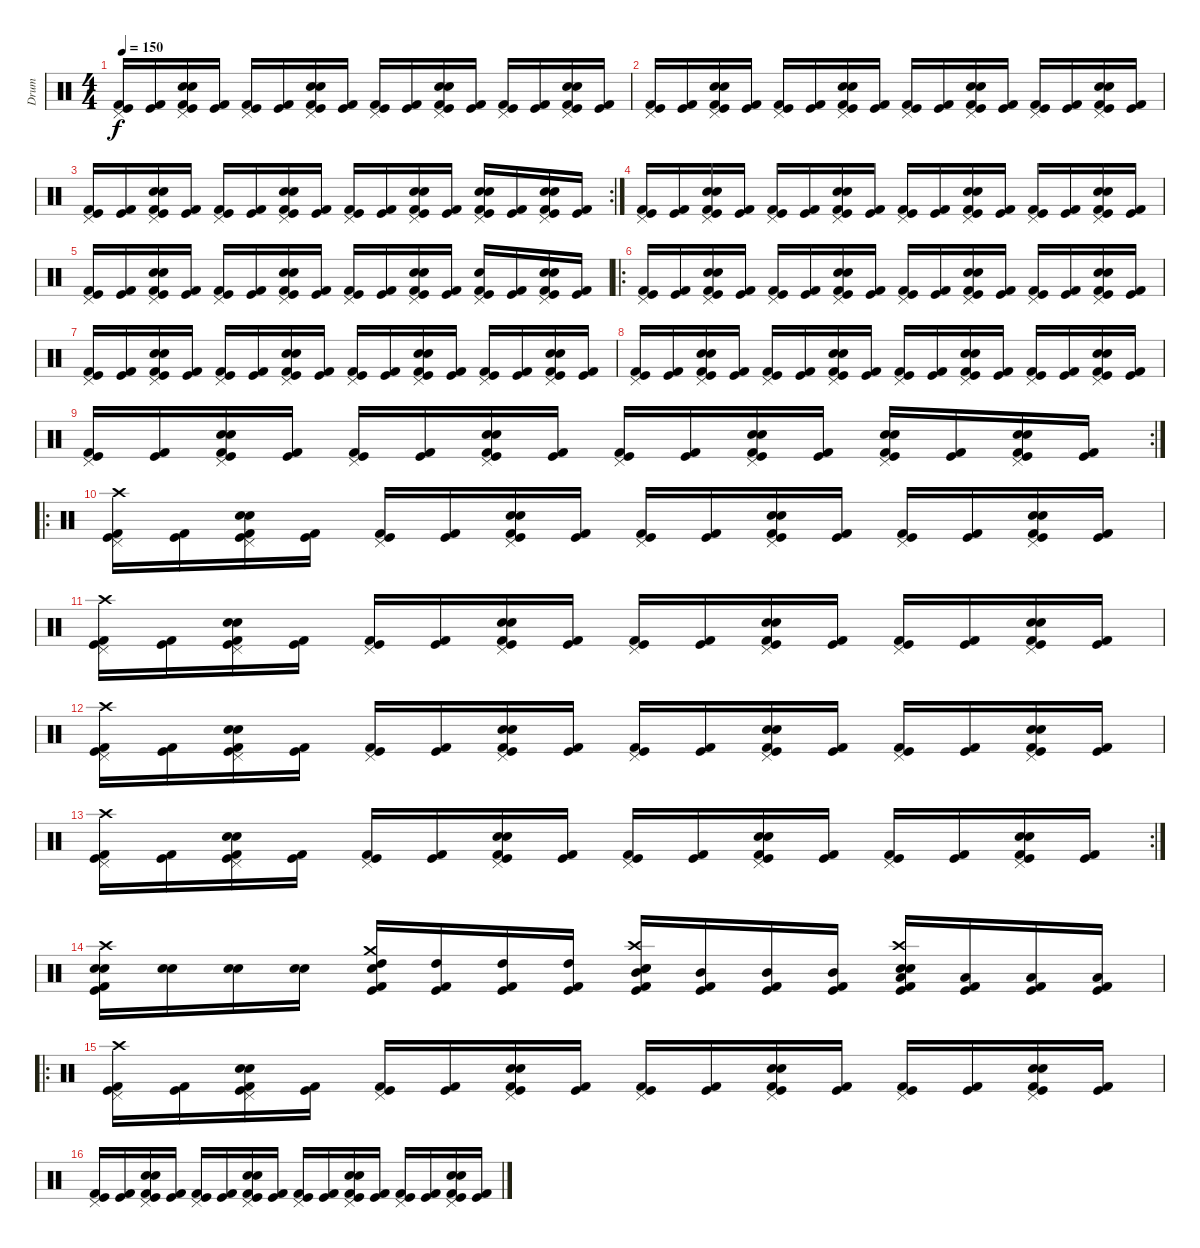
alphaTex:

\track ("Drum" "Drum") {instrument percussion}
\staff {score}
\articulation defaults
\ts (4 4)
\tempo 150
\clef neutral
\ks c
("Pedal Hi-Hat (hit)" "Kick (hit) 2" "Kick (hit)").16{dy f} ("Kick (hit) 2" "Kick (hit)").16 ("Pedal Hi-Hat (hit)" "Electric Snare (hit)" "Snare (hit) 2" "Kick (hit) 2" "Kick (hit)").16 ("Kick (hit) 2" "Kick (hit)").16 ("Pedal Hi-Hat (hit)" "Kick (hit) 2" "Kick (hit)").16 ("Kick (hit) 2" "Kick (hit)").16 ("Pedal Hi-Hat (hit)" "Electric Snare (hit)" "Snare (hit) 2" "Kick (hit) 2" "Kick (hit)").16 ("Kick (hit) 2" "Kick (hit)").16 ("Pedal Hi-Hat (hit)" "Kick (hit) 2" "Kick (hit)").16 ("Kick (hit) 2" "Kick (hit)").16 ("Pedal Hi-Hat (hit)" "Electric Snare (hit)" "Snare (hit) 2" "Kick (hit) 2" "Kick (hit)").16 ("Kick (hit) 2" "Kick (hit)").16 ("Pedal Hi-Hat (hit)" "Kick (hit) 2" "Kick (hit)").16 ("Kick (hit) 2" "Kick (hit)").16 ("Pedal Hi-Hat (hit)" "Electric Snare (hit)" "Snare (hit) 2" "Kick (hit) 2" "Kick (hit)").16 ("Kick (hit) 2" "Kick (hit)").16 |
("Pedal Hi-Hat (hit)" "Kick (hit) 2" "Kick (hit)").16 ("Kick (hit) 2" "Kick (hit)").16 ("Pedal Hi-Hat (hit)" "Electric Snare (hit)" "Snare (hit) 2" "Kick (hit) 2" "Kick (hit)").16 ("Kick (hit) 2" "Kick (hit)").16 ("Pedal Hi-Hat (hit)" "Kick (hit) 2" "Kick (hit)").16 ("Kick (hit) 2" "Kick (hit)").16 ("Pedal Hi-Hat (hit)" "Electric Snare (hit)" "Snare (hit) 2" "Kick (hit) 2" "Kick (hit)").16 ("Kick (hit) 2" "Kick (hit)").16 ("Pedal Hi-Hat (hit)" "Kick (hit) 2" "Kick (hit)").16 ("Kick (hit) 2" "Kick (hit)").16 ("Pedal Hi-Hat (hit)" "Electric Snare (hit)" "Snare (hit) 2" "Kick (hit) 2" "Kick (hit)").16 ("Kick (hit) 2" "Kick (hit)").16 ("Pedal Hi-Hat (hit)" "Kick (hit) 2" "Kick (hit)").16 ("Kick (hit) 2" "Kick (hit)").16 ("Pedal Hi-Hat (hit)" "Electric Snare (hit)" "Snare (hit) 2" "Kick (hit) 2" "Kick (hit)").16 ("Kick (hit) 2" "Kick (hit)").16 |
\rc 2
("Pedal Hi-Hat (hit)" "Kick (hit) 2" "Kick (hit)").16 ("Kick (hit) 2" "Kick (hit)").16 ("Pedal Hi-Hat (hit)" "Electric Snare (hit)" "Snare (hit) 2" "Kick (hit) 2" "Kick (hit)").16 ("Kick (hit) 2" "Kick (hit)").16 ("Pedal Hi-Hat (hit)" "Kick (hit) 2" "Kick (hit)").16 ("Kick (hit) 2" "Kick (hit)").16 ("Pedal Hi-Hat (hit)" "Electric Snare (hit)" "Snare (hit) 2" "Kick (hit) 2" "Kick (hit)").16 ("Kick (hit) 2" "Kick (hit)").16 ("Pedal Hi-Hat (hit)" "Kick (hit) 2" "Kick (hit)").16 ("Kick (hit) 2" "Kick (hit)").16 ("Pedal Hi-Hat (hit)" "Electric Snare (hit)" "Snare (hit) 2" "Kick (hit) 2" "Kick (hit)").16 ("Kick (hit) 2" "Kick (hit)").16 ("Pedal Hi-Hat (hit)" "Electric Snare (hit)" "Snare (hit) 2" "Kick (hit) 2" "Kick (hit)").16 ("Kick (hit) 2" "Kick (hit)").16 ("Pedal Hi-Hat (hit)" "Electric Snare (hit)" "Snare (hit) 2" "Kick (hit) 2" "Kick (hit)").16 ("Kick (hit) 2" "Kick (hit)").16 |
("Pedal Hi-Hat (hit)" "Kick (hit) 2" "Kick (hit)").16 ("Kick (hit) 2" "Kick (hit)").16 ("Pedal Hi-Hat (hit)" "Electric Snare (hit)" "Snare (hit) 2" "Kick (hit) 2" "Kick (hit)").16 ("Kick (hit) 2" "Kick (hit)").16 ("Pedal Hi-Hat (hit)" "Kick (hit) 2" "Kick (hit)").16 ("Kick (hit) 2" "Kick (hit)").16 ("Pedal Hi-Hat (hit)" "Electric Snare (hit)" "Snare (hit) 2" "Kick (hit) 2" "Kick (hit)").16 ("Kick (hit) 2" "Kick (hit)").16 ("Pedal Hi-Hat (hit)" "Kick (hit) 2" "Kick (hit)").16 ("Kick (hit) 2" "Kick (hit)").16 ("Pedal Hi-Hat (hit)" "Electric Snare (hit)" "Snare (hit) 2" "Kick (hit) 2" "Kick (hit)").16 ("Kick (hit) 2" "Kick (hit)").16 ("Pedal Hi-Hat (hit)" "Kick (hit) 2" "Kick (hit)").16 ("Kick (hit) 2" "Kick (hit)").16 ("Pedal Hi-Hat (hit)" "Electric Snare (hit)" "Snare (hit) 2" "Kick (hit) 2" "Kick (hit)").16 ("Kick (hit) 2" "Kick (hit)").16 |
("Pedal Hi-Hat (hit)" "Kick (hit) 2" "Kick (hit)").16 ("Kick (hit) 2" "Kick (hit)").16 ("Pedal Hi-Hat (hit)" "Electric Snare (hit)" "Snare (hit) 2" "Kick (hit) 2" "Kick (hit)").16 ("Kick (hit) 2" "Kick (hit)").16 ("Pedal Hi-Hat (hit)" "Kick (hit) 2" "Kick (hit)").16 ("Kick (hit) 2" "Kick (hit)").16 ("Pedal Hi-Hat (hit)" "Electric Snare (hit)" "Snare (hit) 2" "Kick (hit) 2" "Kick (hit)").16 ("Kick (hit) 2" "Kick (hit)").16 ("Pedal Hi-Hat (hit)" "Kick (hit) 2" "Kick (hit)").16 ("Kick (hit) 2" "Kick (hit)").16 ("Pedal Hi-Hat (hit)" "Electric Snare (hit)" "Snare (hit) 2" "Kick (hit) 2" "Kick (hit)").16 ("Kick (hit) 2" "Kick (hit)").16 ("Pedal Hi-Hat (hit)" "Electric Snare (hit)" "Kick (hit) 2" "Kick (hit)").16 ("Kick (hit) 2" "Kick (hit)").16 ("Pedal Hi-Hat (hit)" "Electric Snare (hit)" "Snare (hit) 2" "Kick (hit) 2" "Kick (hit)").16 ("Kick (hit) 2" "Kick (hit)").16 |
\ro
("Pedal Hi-Hat (hit)" "Kick (hit) 2" "Kick (hit)").16 ("Kick (hit) 2" "Kick (hit)").16 ("Pedal Hi-Hat (hit)" "Electric Snare (hit)" "Snare (hit) 2" "Kick (hit) 2" "Kick (hit)").16 ("Kick (hit) 2" "Kick (hit)").16 ("Pedal Hi-Hat (hit)" "Kick (hit) 2" "Kick (hit)").16 ("Kick (hit) 2" "Kick (hit)").16 ("Pedal Hi-Hat (hit)" "Electric Snare (hit)" "Snare (hit) 2" "Kick (hit) 2" "Kick (hit)").16 ("Kick (hit) 2" "Kick (hit)").16 ("Pedal Hi-Hat (hit)" "Kick (hit) 2" "Kick (hit)").16 ("Kick (hit) 2" "Kick (hit)").16 ("Pedal Hi-Hat (hit)" "Electric Snare (hit)" "Snare (hit) 2" "Kick (hit) 2" "Kick (hit)").16 ("Kick (hit) 2" "Kick (hit)").16 ("Pedal Hi-Hat (hit)" "Kick (hit) 2" "Kick (hit)").16 ("Kick (hit) 2" "Kick (hit)").16 ("Pedal Hi-Hat (hit)" "Electric Snare (hit)" "Snare (hit) 2" "Kick (hit) 2" "Kick (hit)").16 ("Kick (hit) 2" "Kick (hit)").16 |
("Pedal Hi-Hat (hit)" "Kick (hit) 2" "Kick (hit)").16 ("Kick (hit) 2" "Kick (hit)").16 ("Pedal Hi-Hat (hit)" "Electric Snare (hit)" "Snare (hit) 2" "Kick (hit) 2" "Kick (hit)").16 ("Kick (hit) 2" "Kick (hit)").16 ("Pedal Hi-Hat (hit)" "Kick (hit) 2" "Kick (hit)").16 ("Kick (hit) 2" "Kick (hit)").16 ("Pedal Hi-Hat (hit)" "Electric Snare (hit)" "Snare (hit) 2" "Kick (hit) 2" "Kick (hit)").16 ("Kick (hit) 2" "Kick (hit)").16 ("Pedal Hi-Hat (hit)" "Kick (hit) 2" "Kick (hit)").16 ("Kick (hit) 2" "Kick (hit)").16 ("Pedal Hi-Hat (hit)" "Electric Snare (hit)" "Snare (hit) 2" "Kick (hit) 2" "Kick (hit)").16 ("Kick (hit) 2" "Kick (hit)").16 ("Pedal Hi-Hat (hit)" "Kick (hit) 2" "Kick (hit)").16 ("Kick (hit) 2" "Kick (hit)").16 ("Pedal Hi-Hat (hit)" "Electric Snare (hit)" "Snare (hit) 2" "Kick (hit) 2" "Kick (hit)").16 ("Kick (hit) 2" "Kick (hit)").16 |
("Pedal Hi-Hat (hit)" "Kick (hit) 2" "Kick (hit)").16 ("Kick (hit) 2" "Kick (hit)").16 ("Pedal Hi-Hat (hit)" "Electric Snare (hit)" "Snare (hit) 2" "Kick (hit) 2" "Kick (hit)").16 ("Kick (hit) 2" "Kick (hit)").16 ("Pedal Hi-Hat (hit)" "Kick (hit) 2" "Kick (hit)").16 ("Kick (hit) 2" "Kick (hit)").16 ("Pedal Hi-Hat (hit)" "Electric Snare (hit)" "Snare (hit) 2" "Kick (hit) 2" "Kick (hit)").16 ("Kick (hit) 2" "Kick (hit)").16 ("Pedal Hi-Hat (hit)" "Kick (hit) 2" "Kick (hit)").16 ("Kick (hit) 2" "Kick (hit)").16 ("Pedal Hi-Hat (hit)" "Electric Snare (hit)" "Snare (hit) 2" "Kick (hit) 2" "Kick (hit)").16 ("Kick (hit) 2" "Kick (hit)").16 ("Pedal Hi-Hat (hit)" "Kick (hit) 2" "Kick (hit)").16 ("Kick (hit) 2" "Kick (hit)").16 ("Pedal Hi-Hat (hit)" "Electric Snare (hit)" "Snare (hit) 2" "Kick (hit) 2" "Kick (hit)").16 ("Kick (hit) 2" "Kick (hit)").16 |
\rc 2
("Pedal Hi-Hat (hit)" "Kick (hit) 2" "Kick (hit)").16 ("Kick (hit) 2" "Kick (hit)").16 ("Pedal Hi-Hat (hit)" "Electric Snare (hit)" "Snare (hit) 2" "Kick (hit) 2" "Kick (hit)").16 ("Kick (hit) 2" "Kick (hit)").16 ("Pedal Hi-Hat (hit)" "Kick (hit) 2" "Kick (hit)").16 ("Kick (hit) 2" "Kick (hit)").16 ("Pedal Hi-Hat (hit)" "Electric Snare (hit)" "Snare (hit) 2" "Kick (hit) 2" "Kick (hit)").16 ("Kick (hit) 2" "Kick (hit)").16 ("Pedal Hi-Hat (hit)" "Kick (hit) 2" "Kick (hit)").16 ("Kick (hit) 2" "Kick (hit)").16 ("Pedal Hi-Hat (hit)" "Electric Snare (hit)" "Snare (hit) 2" "Kick (hit) 2" "Kick (hit)").16 ("Kick (hit) 2" "Kick (hit)").16 ("Pedal Hi-Hat (hit)" "Electric Snare (hit)" "Snare (hit) 2" "Kick (hit) 2" "Kick (hit)").16 ("Kick (hit) 2" "Kick (hit)").16 ("Pedal Hi-Hat (hit)" "Electric Snare (hit)" "Snare (hit) 2" "Kick (hit) 2" "Kick (hit)").16 ("Kick (hit) 2" "Kick (hit)").16 |
\ro
("Crash high (hit)" "Pedal Hi-Hat (hit)" "Kick (hit) 2" "Kick (hit)").16 ("Kick (hit) 2" "Kick (hit)").16 ("Pedal Hi-Hat (hit)" "Electric Snare (hit)" "Snare (hit) 2" "Kick (hit) 2" "Kick (hit)").16 ("Kick (hit) 2" "Kick (hit)").16 ("Pedal Hi-Hat (hit)" "Kick (hit) 2" "Kick (hit)").16 ("Kick (hit) 2" "Kick (hit)").16 ("Pedal Hi-Hat (hit)" "Electric Snare (hit)" "Snare (hit) 2" "Kick (hit) 2" "Kick (hit)").16 ("Kick (hit) 2" "Kick (hit)").16 ("Pedal Hi-Hat (hit)" "Kick (hit) 2" "Kick (hit)").16 ("Kick (hit) 2" "Kick (hit)").16 ("Pedal Hi-Hat (hit)" "Electric Snare (hit)" "Snare (hit) 2" "Kick (hit) 2" "Kick (hit)").16 ("Kick (hit) 2" "Kick (hit)").16 ("Pedal Hi-Hat (hit)" "Kick (hit) 2" "Kick (hit)").16 ("Kick (hit) 2" "Kick (hit)").16 ("Pedal Hi-Hat (hit)" "Electric Snare (hit)" "Snare (hit) 2" "Kick (hit) 2" "Kick (hit)").16 ("Kick (hit) 2" "Kick (hit)").16 |
("Crash high (hit)" "Pedal Hi-Hat (hit)" "Kick (hit) 2" "Kick (hit)").16 ("Kick (hit) 2" "Kick (hit)").16 ("Pedal Hi-Hat (hit)" "Electric Snare (hit)" "Snare (hit) 2" "Kick (hit) 2" "Kick (hit)").16 ("Kick (hit) 2" "Kick (hit)").16 ("Pedal Hi-Hat (hit)" "Kick (hit) 2" "Kick (hit)").16 ("Kick (hit) 2" "Kick (hit)").16 ("Pedal Hi-Hat (hit)" "Electric Snare (hit)" "Snare (hit) 2" "Kick (hit) 2" "Kick (hit)").16 ("Kick (hit) 2" "Kick (hit)").16 ("Pedal Hi-Hat (hit)" "Kick (hit) 2" "Kick (hit)").16 ("Kick (hit) 2" "Kick (hit)").16 ("Pedal Hi-Hat (hit)" "Electric Snare (hit)" "Snare (hit) 2" "Kick (hit) 2" "Kick (hit)").16 ("Kick (hit) 2" "Kick (hit)").16 ("Pedal Hi-Hat (hit)" "Kick (hit) 2" "Kick (hit)").16 ("Kick (hit) 2" "Kick (hit)").16 ("Pedal Hi-Hat (hit)" "Electric Snare (hit)" "Snare (hit) 2" "Kick (hit) 2" "Kick (hit)").16 ("Kick (hit) 2" "Kick (hit)").16 |
("Crash high (hit)" "Pedal Hi-Hat (hit)" "Kick (hit) 2" "Kick (hit)").16 ("Kick (hit) 2" "Kick (hit)").16 ("Pedal Hi-Hat (hit)" "Electric Snare (hit)" "Snare (hit) 2" "Kick (hit) 2" "Kick (hit)").16 ("Kick (hit) 2" "Kick (hit)").16 ("Pedal Hi-Hat (hit)" "Kick (hit) 2" "Kick (hit)").16 ("Kick (hit) 2" "Kick (hit)").16 ("Pedal Hi-Hat (hit)" "Electric Snare (hit)" "Snare (hit) 2" "Kick (hit) 2" "Kick (hit)").16 ("Kick (hit) 2" "Kick (hit)").16 ("Pedal Hi-Hat (hit)" "Kick (hit) 2" "Kick (hit)").16 ("Kick (hit) 2" "Kick (hit)").16 ("Pedal Hi-Hat (hit)" "Electric Snare (hit)" "Snare (hit) 2" "Kick (hit) 2" "Kick (hit)").16 ("Kick (hit) 2" "Kick (hit)").16 ("Pedal Hi-Hat (hit)" "Kick (hit) 2" "Kick (hit)").16 ("Kick (hit) 2" "Kick (hit)").16 ("Pedal Hi-Hat (hit)" "Electric Snare (hit)" "Snare (hit) 2" "Kick (hit) 2" "Kick (hit)").16 ("Kick (hit) 2" "Kick (hit)").16 |
\rc 2
("Crash high (hit)" "Pedal Hi-Hat (hit)" "Kick (hit) 2" "Kick (hit)").16 ("Kick (hit) 2" "Kick (hit)").16 ("Pedal Hi-Hat (hit)" "Electric Snare (hit)" "Snare (hit) 2" "Kick (hit) 2" "Kick (hit)").16 ("Kick (hit) 2" "Kick (hit)").16 ("Pedal Hi-Hat (hit)" "Kick (hit) 2" "Kick (hit)").16 ("Kick (hit) 2" "Kick (hit)").16 ("Pedal Hi-Hat (hit)" "Electric Snare (hit)" "Snare (hit) 2" "Kick (hit) 2" "Kick (hit)").16 ("Kick (hit) 2" "Kick (hit)").16 ("Pedal Hi-Hat (hit)" "Kick (hit) 2" "Kick (hit)").16 ("Kick (hit) 2" "Kick (hit)").16 ("Pedal Hi-Hat (hit)" "Electric Snare (hit)" "Snare (hit) 2" "Kick (hit) 2" "Kick (hit)").16 ("Kick (hit) 2" "Kick (hit)").16 ("Pedal Hi-Hat (hit)" "Kick (hit) 2" "Kick (hit)").16 ("Kick (hit) 2" "Kick (hit)").16 ("Pedal Hi-Hat (hit)" "Electric Snare (hit)" "Snare (hit) 2" "Kick (hit) 2" "Kick (hit)").16 ("Kick (hit) 2" "Kick (hit)").16 |
("Crash high (hit)" "Electric Snare (hit)" "Snare (hit) 2" "Kick (hit)" "Kick (hit) 2").16 ("Electric Snare (hit)" "Snare (hit) 2").16 ("Electric Snare (hit)" "Snare (hit) 2").16 ("Electric Snare (hit)" "Snare (hit) 2").16 ("Crash medium (hit)" "High Tom (hit)" "Electric Snare (hit)" "Kick (hit)" "Kick (hit) 2").16 ("High Tom (hit)" "Kick (hit)" "Kick (hit) 2").16 ("High Tom (hit)" "Kick (hit)" "Kick (hit) 2").16 ("High Tom (hit)" "Kick (hit)" "Kick (hit) 2").16 ("Crash high (hit)" "Mid Tom (hit)" "Electric Snare (hit)" "Snare (hit) 2" "Kick (hit)" "Kick (hit) 2").16 ("Mid Tom (hit)" "Kick (hit)" "Kick (hit) 2").16 ("Mid Tom (hit)" "Kick (hit)" "Kick (hit) 2").16 ("Mid Tom (hit)" "Kick (hit)" "Kick (hit) 2").16 ("Crash high (hit)" "Low Tom (hit)" "Electric Snare (hit)" "Snare (hit) 2" "Kick (hit)" "Kick (hit) 2").16 ("Low Tom (hit)" "Kick (hit)" "Kick (hit) 2").16 ("Low Tom (hit)" "Kick (hit)" "Kick (hit) 2").16 ("Low Tom (hit)" "Kick (hit)" "Kick (hit) 2").16 |
\ro
("Crash high (hit)" "Pedal Hi-Hat (hit)" "Kick (hit) 2" "Kick (hit)").16 ("Kick (hit) 2" "Kick (hit)").16 ("Pedal Hi-Hat (hit)" "Electric Snare (hit)" "Snare (hit) 2" "Kick (hit) 2" "Kick (hit)").16 ("Kick (hit) 2" "Kick (hit)").16 ("Pedal Hi-Hat (hit)" "Kick (hit) 2" "Kick (hit)").16 ("Kick (hit) 2" "Kick (hit)").16 ("Pedal Hi-Hat (hit)" "Electric Snare (hit)" "Snare (hit) 2" "Kick (hit) 2" "Kick (hit)").16 ("Kick (hit) 2" "Kick (hit)").16 ("Pedal Hi-Hat (hit)" "Kick (hit) 2" "Kick (hit)").16 ("Kick (hit) 2" "Kick (hit)").16 ("Pedal Hi-Hat (hit)" "Electric Snare (hit)" "Snare (hit) 2" "Kick (hit) 2" "Kick (hit)").16 ("Kick (hit) 2" "Kick (hit)").16 ("Pedal Hi-Hat (hit)" "Kick (hit) 2" "Kick (hit)").16 ("Kick (hit) 2" "Kick (hit)").16 ("Pedal Hi-Hat (hit)" "Electric Snare (hit)" "Snare (hit) 2" "Kick (hit) 2" "Kick (hit)").16 ("Kick (hit) 2" "Kick (hit)").16 |
("Pedal Hi-Hat (hit)" "Kick (hit) 2" "Kick (hit)").16 ("Kick (hit) 2" "Kick (hit)").16 ("Pedal Hi-Hat (hit)" "Electric Snare (hit)" "Snare (hit) 2" "Kick (hit) 2" "Kick (hit)").16 ("Kick (hit) 2" "Kick (hit)").16 ("Pedal Hi-Hat (hit)" "Kick (hit) 2" "Kick (hit)").16 ("Kick (hit) 2" "Kick (hit)").16 ("Pedal Hi-Hat (hit)" "Electric Snare (hit)" "Snare (hit) 2" "Kick (hit) 2" "Kick (hit)").16 ("Kick (hit) 2" "Kick (hit)").16 ("Pedal Hi-Hat (hit)" "Kick (hit) 2" "Kick (hit)").16 ("Kick (hit) 2" "Kick (hit)").16 ("Pedal Hi-Hat (hit)" "Electric Snare (hit)" "Snare (hit) 2" "Kick (hit) 2" "Kick (hit)").16 ("Kick (hit) 2" "Kick (hit)").16 ("Pedal Hi-Hat (hit)" "Kick (hit) 2" "Kick (hit)").16 ("Kick (hit) 2" "Kick (hit)").16 ("Pedal Hi-Hat (hit)" "Electric Snare (hit)" "Snare (hit) 2" "Kick (hit) 2" "Kick (hit)").16 ("Kick (hit) 2" "Kick (hit)").16
